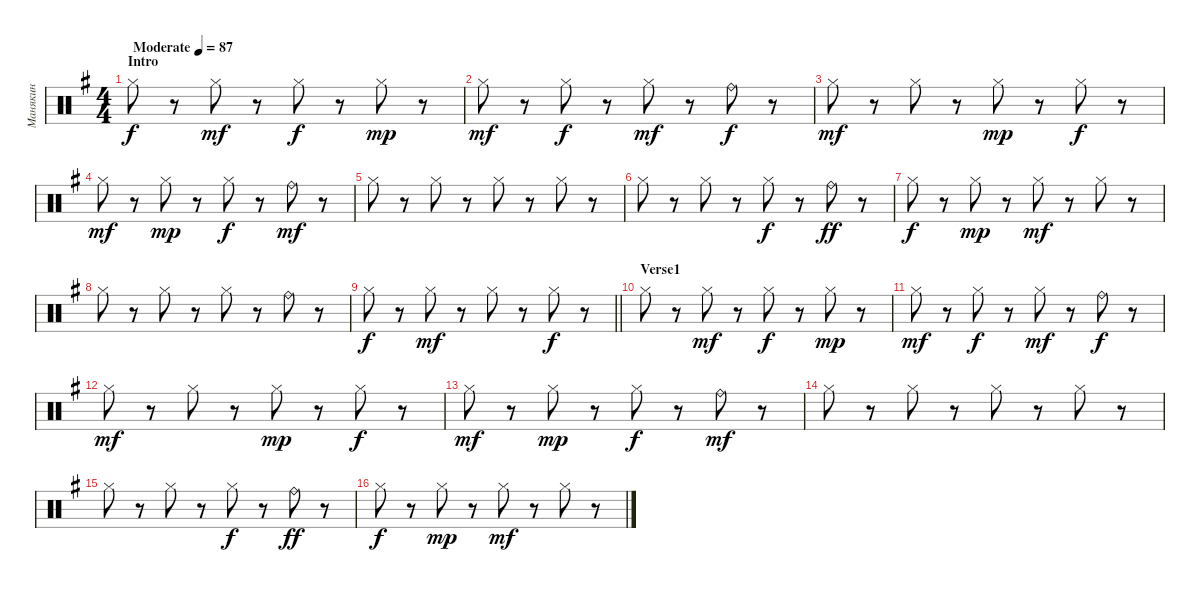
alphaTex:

\track ("Манякин" "Манякин") {instrument percussion}
\staff {score}
\articulation defaults
\ts (4 4)
\section ("" "Intro")
\tempo (87 "Moderate")
\clef neutral
\ks g "Hi-Hat (closed)".8{dy f}
r.8 "Hi-Hat (closed)".8{dy mf} r.8 "Hi-Hat (closed)".8{dy f} r.8 "Hi-Hat (closed)".8{dy mp} r.8 |
"Hi-Hat (closed)".8{dy mf} r.8 "Hi-Hat (closed)".8{dy f} r.8 "Hi-Hat (closed)".8{dy mf} r.8 "Ride (bell)".8{dy f} r.8 |
"Hi-Hat (closed)".8{dy mf} r.8 "Hi-Hat (closed)".8 r.8 "Hi-Hat (closed)".8{dy mp} r.8 "Hi-Hat (closed)".8{dy f} r.8 |
"Hi-Hat (closed)".8{dy mf} r.8 "Hi-Hat (closed)".8{dy mp} r.8 "Hi-Hat (closed)".8{dy f} r.8 "Ride (bell)".8{dy mf} r.8 |
"Hi-Hat (closed)".8 r.8 "Hi-Hat (closed)".8 r.8 "Hi-Hat (closed)".8 r.8 "Hi-Hat (closed)".8 r.8 |
"Hi-Hat (closed)".8 r.8 "Hi-Hat (closed)".8 r.8 "Hi-Hat (closed)".8{dy f} r.8 "Ride (bell)".8{dy ff} r.8 |
"Hi-Hat (closed)".8{dy f} r.8 "Hi-Hat (closed)".8{dy mp} r.8 "Hi-Hat (closed)".8{dy mf} r.8 "Hi-Hat (closed)".8 r.8 |
"Hi-Hat (closed)".8 r.8 "Hi-Hat (closed)".8 r.8 "Hi-Hat (closed)".8 r.8 "Ride (bell)".8 r.8 |
\barLineRight lightlight "Hi-Hat (closed)".8{dy f}
r.8 "Hi-Hat (closed)".8{dy mf} r.8 "Hi-Hat (closed)".8 r.8 "Hi-Hat (closed)".8{dy f} r.8 |
\section ("" "Verse1")
"Hi-Hat (closed)".8 r.8 "Hi-Hat (closed)".8{dy mf} r.8 "Hi-Hat (closed)".8{dy f} r.8 "Hi-Hat (closed)".8{dy mp} r.8 |
"Hi-Hat (closed)".8{dy mf} r.8 "Hi-Hat (closed)".8{dy f} r.8 "Hi-Hat (closed)".8{dy mf} r.8 "Ride (bell)".8{dy f} r.8 |
"Hi-Hat (closed)".8{dy mf} r.8 "Hi-Hat (closed)".8 r.8 "Hi-Hat (closed)".8{dy mp} r.8 "Hi-Hat (closed)".8{dy f} r.8 |
"Hi-Hat (closed)".8{dy mf} r.8 "Hi-Hat (closed)".8{dy mp} r.8 "Hi-Hat (closed)".8{dy f} r.8 "Ride (bell)".8{dy mf} r.8 |
"Hi-Hat (closed)".8 r.8 "Hi-Hat (closed)".8 r.8 "Hi-Hat (closed)".8 r.8 "Hi-Hat (closed)".8 r.8 |
"Hi-Hat (closed)".8 r.8 "Hi-Hat (closed)".8 r.8 "Hi-Hat (closed)".8{dy f} r.8 "Ride (bell)".8{dy ff} r.8 |
"Hi-Hat (closed)".8{dy f} r.8 "Hi-Hat (closed)".8{dy mp} r.8 "Hi-Hat (closed)".8{dy mf} r.8 "Hi-Hat (closed)".8 r.8
